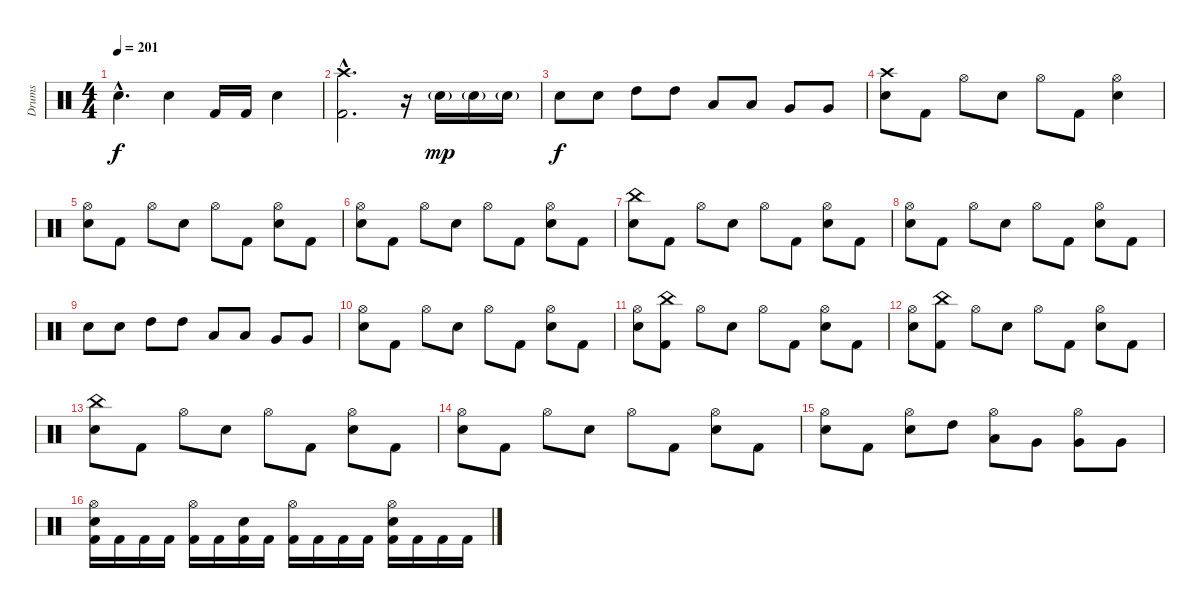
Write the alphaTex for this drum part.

\track ("Drums" "Drums") {instrument percussion}
\staff {score}
\articulation defaults
\ts (4 4)
\tempo 201
\clef neutral
\ks c "Snare (hit) 2"{hac}.4{d dy f} "Snare (hit) 2".4 "Kick (hit) 2".16 "Kick (hit) 2".16 "Snare (hit) 2".4
|
("Crash high (hit)"{hac} "Kick (hit) 2"{hac}).2{d} r.16 "Snare (hit) 2"{g}.16{dy mp} "Snare (hit) 2"{g}.16 "Snare (hit) 2"{g}.16 |
"Snare (hit) 2".8{dy f} "Snare (hit) 2".8 "High Tom (hit)".8 "High Tom (hit)".8 "Low Tom (hit)".8 "Low Tom (hit)".8 "Very Low Tom (hit)".8 "Very Low Tom (hit)".8 |
("Crash high (hit)" "Snare (hit) 2").8 "Kick (hit) 2".8 "Hi-Hat (open)".8 "Snare (hit) 2".8 "Hi-Hat (open)".8 "Kick (hit) 2".8 ("Hi-Hat (open)" "Snare (hit) 2").4 |
("Hi-Hat (open)" "Snare (hit) 2").8 "Kick (hit) 2".8 "Hi-Hat (open)".8 "Snare (hit) 2".8 "Hi-Hat (open)".8 "Kick (hit) 2".8 ("Hi-Hat (open)" "Snare (hit) 2").8 "Kick (hit) 2".8 |
("Hi-Hat (open)" "Snare (hit) 2").8 "Kick (hit) 2".8 "Hi-Hat (open)".8 "Snare (hit) 2".8 "Hi-Hat (open)".8 "Kick (hit) 2".8 ("Hi-Hat (open)" "Snare (hit) 2").8 "Kick (hit) 2".8 |
("China (hit)" "Snare (hit) 2").8 "Kick (hit) 2".8 "Hi-Hat (open)".8 "Snare (hit) 2".8 "Hi-Hat (open)".8 "Kick (hit) 2".8 ("Hi-Hat (open)" "Snare (hit) 2").8 "Kick (hit) 2".8 |
("Hi-Hat (open)" "Snare (hit) 2").8 "Kick (hit) 2".8 "Hi-Hat (open)".8 "Snare (hit) 2".8 "Hi-Hat (open)".8 "Kick (hit) 2".8 ("Hi-Hat (open)" "Snare (hit) 2").8 "Kick (hit) 2".8 |
"Snare (hit) 2".8 "Snare (hit) 2".8 "High Tom (hit)".8 "High Tom (hit)".8 "Low Tom (hit)".8 "Low Tom (hit)".8 "Very Low Tom (hit)".8 "Very Low Tom (hit)".8 |
("Hi-Hat (open)" "Snare (hit) 2").8 "Kick (hit) 2".8 "Hi-Hat (open)".8 "Snare (hit) 2".8 "Hi-Hat (open)".8 "Kick (hit) 2".8 ("Hi-Hat (open)" "Snare (hit) 2").8 "Kick (hit) 2".8 |
("Hi-Hat (open)" "Snare (hit) 2").8 ("China (hit)" "Kick (hit) 2").8 "Hi-Hat (open)".8 "Snare (hit) 2".8 "Hi-Hat (open)".8 "Kick (hit) 2".8 ("Hi-Hat (open)" "Snare (hit) 2").8 "Kick (hit) 2".8 |
("Hi-Hat (open)" "Snare (hit) 2").8 ("China (hit)" "Kick (hit) 2").8 "Hi-Hat (open)".8 "Snare (hit) 2".8 "Hi-Hat (open)".8 "Kick (hit) 2".8 ("Hi-Hat (open)" "Snare (hit) 2").8 "Kick (hit) 2".8 |
("China (hit)" "Snare (hit) 2").8 "Kick (hit) 2".8 "Hi-Hat (open)".8 "Snare (hit) 2".8 "Hi-Hat (open)".8 "Kick (hit) 2".8 ("Hi-Hat (open)" "Snare (hit) 2").8 "Kick (hit) 2".8 |
("Hi-Hat (open)" "Snare (hit) 2").8 "Kick (hit) 2".8 "Hi-Hat (open)".8 "Snare (hit) 2".8 "Hi-Hat (open)".8 "Kick (hit) 2".8 ("Hi-Hat (open)" "Snare (hit) 2").8 "Kick (hit) 2".8 |
("Hi-Hat (open)" "Snare (hit) 2").8 "Kick (hit) 2".8 ("Hi-Hat (open)" "Snare (hit) 2").8 "High Tom (hit)".8 ("Hi-Hat (open)" "Low Tom (hit)").8 "Very Low Tom (hit)".8 ("Hi-Hat (open)" "Very Low Tom (hit)").8 "Very Low Tom (hit)".8 |
("Hi-Hat (open)" "Snare (hit) 2" "Kick (hit) 2").16 "Kick (hit) 2".16 "Kick (hit) 2".16 "Kick (hit) 2".16 ("Hi-Hat (open)" "Kick (hit) 2").16 "Kick (hit) 2".16 ("Snare (hit) 2" "Kick (hit) 2").16 "Kick (hit) 2".16 ("Hi-Hat (open)" "Kick (hit) 2").16 "Kick (hit) 2".16 "Kick (hit) 2".16 "Kick (hit) 2".16 ("Hi-Hat (open)" "Snare (hit) 2" "Kick (hit) 2").16 "Kick (hit) 2".16 "Kick (hit) 2".16 "Kick (hit) 2".16
